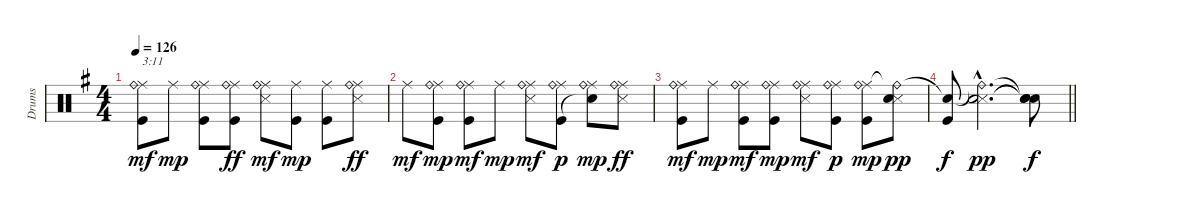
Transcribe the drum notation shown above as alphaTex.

\track ("Drums" "Drums") {instrument percussion}
\staff {score}
\articulation defaults
\ts (4 4)
\tempo 126
\clef neutral
\ks g
("Ride (middle)" "Ride (bell)" "Kick (hit)").8{txt "3:11" dy mf} "Ride (middle)".8{dy mp} ("Ride (middle)" "Ride (bell)" "Kick (hit)").8 ("Ride (middle)" "Ride (bell)" "Kick (hit)").8{dy ff} ("Ride (middle)" "Ride (bell)" "Snare (side stick) 3").8{dy mf} ("Ride (middle)" "Kick (hit)").8{dy mp} ("Ride (middle)" "Kick (hit)").8 ("Ride (middle)" "Ride (bell)" "Snare (side stick) 3").8{dy ff} |
"Ride (middle)".8{dy mf} ("Ride (middle)" "Ride (bell)" "Kick (hit)").8{dy mp} ("Ride (middle)" "Ride (bell)" "Kick (hit)").8{dy mf} "Ride (middle)".8{dy mp} ("Ride (middle)" "Ride (bell)" "Snare (side stick) 3").8{dy mf} ("Ride (middle)" "Ride (bell)" "Kick (hit)").8{dy p} ("Ride (middle)" "Ride (bell)" "Snare (hit)"{t}).8{dy mp} ("Ride (middle)" "Ride (bell)" "Snare (side stick) 3").8{dy ff} |
("Ride (middle)" "Ride (bell)" "Kick (hit)").8{dy mf} "Ride (middle)".8{dy mp} ("Ride (middle)" "Ride (bell)" "Kick (hit)").8{dy mf} ("Ride (middle)" "Ride (bell)" "Kick (hit)").8{dy mp} ("Ride (middle)" "Ride (bell)" "Snare (side stick) 3").8{dy mf} ("Ride (middle)" "Ride (bell)" "Kick (hit)").8{dy p} ("Ride (middle)" "Ride (bell)" "Kick (hit)").8{dy mp} ("Ride (bell)"{t} "Snare (side stick) 3" "Electric Snare (hit)").8{dy pp} |
\barLineRight lightlight
("Snare (hit)"{t} "Kick (hit)").8{dy f} ("Ride (bell)"{hac t} "Snare (side stick) 3"{hac} "Electric Snare (hit)"{hac}).2{d dy pp} ("Snare (hit)"{t} "Snare (hit)"{t} "Snare (hit)"{t}).8{dy f}
